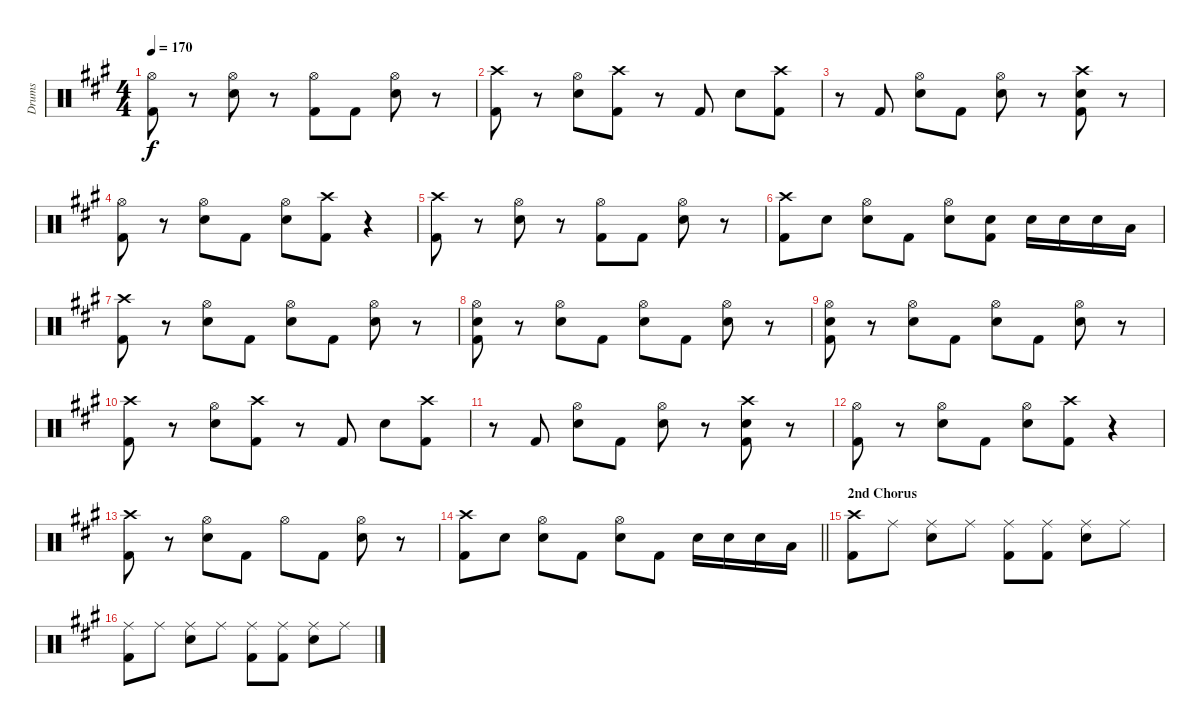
\track ("Drums" "Drums") {instrument percussion}
\staff {score}
\articulation defaults
\ts (4 4)
\tempo 170
\clef neutral
\ks a
("Hi-Hat (open)" "Kick (hit) 2").8{dy f} r.8 ("Hi-Hat (open)" "Snare (hit) 2").8 r.8 ("Hi-Hat (open)" "Kick (hit) 2").8 "Kick (hit) 2".8 ("Hi-Hat (open)" "Snare (hit) 2").8 r.8 |
("Crash high (hit)" "Kick (hit) 2").8 r.8 ("Hi-Hat (open)" "Snare (hit) 2").8 ("Crash high (hit)" "Kick (hit) 2").8 r.8 "Kick (hit) 2".8 "Snare (hit) 2".8 ("Crash high (hit)" "Kick (hit) 2").8 |
r.8 "Kick (hit) 2".8 ("Hi-Hat (open)" "Snare (hit) 2").8 "Kick (hit) 2".8 ("Hi-Hat (open)" "Snare (hit) 2").8 r.8 ("Crash high (hit)" "Snare (hit) 2" "Kick (hit) 2").8 r.8 |
("Hi-Hat (open)" "Kick (hit) 2").8 r.8 ("Hi-Hat (open)" "Snare (hit) 2").8 "Kick (hit) 2".8 ("Hi-Hat (open)" "Snare (hit) 2").8 ("Crash high (hit)" "Kick (hit) 2").8 r.4 |
("Crash high (hit)" "Kick (hit) 2").8 r.8 ("Hi-Hat (open)" "Snare (hit) 2").8 r.8 ("Hi-Hat (open)" "Kick (hit) 2").8 "Kick (hit) 2".8 ("Hi-Hat (open)" "Snare (hit) 2").8 r.8 |
("Crash high (hit)" "Kick (hit) 2").8 "Snare (hit) 2".8 ("Hi-Hat (open)" "Snare (hit) 2").8 "Kick (hit) 2".8 ("Hi-Hat (open)" "Snare (hit) 2").8 ("Snare (hit) 2" "Kick (hit) 2").8 "Snare (hit) 2".16 "Snare (hit) 2".16 "Snare (hit) 2".16 "Low Tom (hit)".16 |
("Crash high (hit)" "Kick (hit) 2").8 r.8 ("Hi-Hat (open)" "Snare (hit) 2").8 "Kick (hit) 2".8 ("Hi-Hat (open)" "Snare (hit) 2").8 "Kick (hit) 2".8 ("Hi-Hat (open)" "Snare (hit) 2").8 r.8 |
("Hi-Hat (open)" "Snare (hit) 2" "Kick (hit) 2").8 r.8 ("Hi-Hat (open)" "Snare (hit) 2").8 "Kick (hit) 2".8 ("Hi-Hat (open)" "Snare (hit) 2").8 "Kick (hit) 2".8 ("Hi-Hat (open)" "Snare (hit) 2").8 r.8 |
("Hi-Hat (open)" "Snare (hit) 2" "Kick (hit) 2").8 r.8 ("Hi-Hat (open)" "Snare (hit) 2").8 "Kick (hit) 2".8 ("Hi-Hat (open)" "Snare (hit) 2").8 "Kick (hit) 2".8 ("Hi-Hat (open)" "Snare (hit) 2").8 r.8 |
("Crash high (hit)" "Kick (hit) 2").8 r.8 ("Hi-Hat (open)" "Snare (hit) 2").8 ("Crash high (hit)" "Kick (hit) 2").8 r.8 "Kick (hit) 2".8 "Snare (hit) 2".8 ("Crash high (hit)" "Kick (hit) 2").8 |
r.8 "Kick (hit) 2".8 ("Hi-Hat (open)" "Snare (hit) 2").8 "Kick (hit) 2".8 ("Hi-Hat (open)" "Snare (hit) 2").8 r.8 ("Crash high (hit)" "Snare (hit) 2" "Kick (hit) 2").8 r.8 |
("Hi-Hat (open)" "Kick (hit) 2").8 r.8 ("Hi-Hat (open)" "Snare (hit) 2").8 "Kick (hit) 2".8 ("Hi-Hat (open)" "Snare (hit) 2").8 ("Crash high (hit)" "Kick (hit) 2").8 r.4 |
("Crash high (hit)" "Kick (hit) 2").8 r.8 ("Hi-Hat (open)" "Snare (hit) 2").8 "Kick (hit) 2".8 "Hi-Hat (open)".8 "Kick (hit) 2".8 ("Hi-Hat (open)" "Snare (hit) 2").8 r.8 |
\barLineRight lightlight
("Crash high (hit)" "Kick (hit) 2").8 "Snare (hit) 2".8 ("Hi-Hat (open)" "Snare (hit) 2").8 "Kick (hit) 2".8 ("Hi-Hat (open)" "Snare (hit) 2").8 "Kick (hit) 2".8 "Snare (hit) 2".16 "Snare (hit) 2".16 "Snare (hit) 2".16 "Low Tom (hit)".16 |
\section ("" "2nd Chorus")
("Crash high (hit)" "Kick (hit) 2").8 "Ride (middle)".8 ("Ride (middle)" "Snare (hit) 2").8 "Ride (middle)".8 ("Ride (middle)" "Kick (hit) 2").8 ("Ride (middle)" "Kick (hit) 2").8 ("Ride (middle)" "Snare (hit) 2").8 "Ride (middle)".8 |
("Ride (middle)" "Kick (hit) 2").8 "Ride (middle)".8 ("Ride (middle)" "Snare (hit) 2").8 "Ride (middle)".8 ("Ride (middle)" "Kick (hit) 2").8 ("Ride (middle)" "Kick (hit) 2").8 ("Ride (middle)" "Snare (hit) 2").8 "Ride (middle)".8
